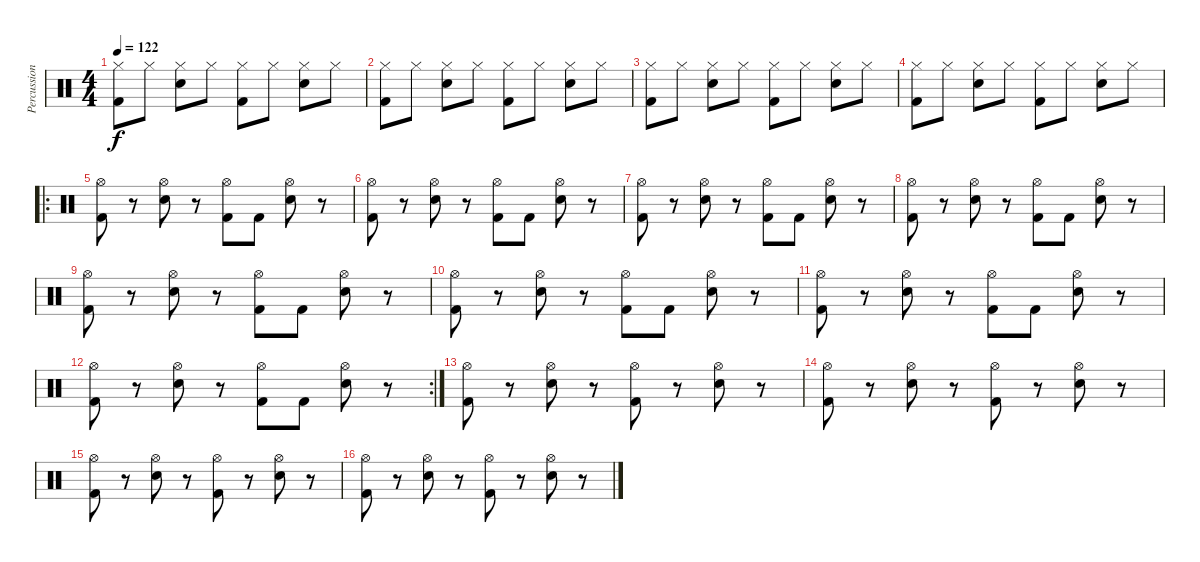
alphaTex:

\track ("Percussion" "Percussion") {instrument percussion}
\staff {score}
\articulation defaults
\ts (4 4)
\tempo 122
\clef neutral
\ks c
("Hi-Hat (closed)" "Kick (hit) 2").8{dy f} "Hi-Hat (closed)".8 ("Hi-Hat (closed)" "Electric Snare (hit)").8 "Hi-Hat (closed)".8 ("Hi-Hat (closed)" "Kick (hit) 2").8 "Hi-Hat (closed)".8 ("Hi-Hat (closed)" "Electric Snare (hit)").8 "Hi-Hat (closed)".8 |
("Hi-Hat (closed)" "Kick (hit) 2").8 "Hi-Hat (closed)".8 ("Hi-Hat (closed)" "Electric Snare (hit)").8 "Hi-Hat (closed)".8 ("Hi-Hat (closed)" "Kick (hit) 2").8 "Hi-Hat (closed)".8 ("Hi-Hat (closed)" "Electric Snare (hit)").8 "Hi-Hat (closed)".8 |
("Hi-Hat (closed)" "Kick (hit) 2").8 "Hi-Hat (closed)".8 ("Hi-Hat (closed)" "Electric Snare (hit)").8 "Hi-Hat (closed)".8 ("Hi-Hat (closed)" "Kick (hit) 2").8 "Hi-Hat (closed)".8 ("Hi-Hat (closed)" "Electric Snare (hit)").8 "Hi-Hat (closed)".8 |
("Hi-Hat (closed)" "Kick (hit) 2").8 "Hi-Hat (closed)".8 ("Hi-Hat (closed)" "Electric Snare (hit)").8 "Hi-Hat (closed)".8 ("Hi-Hat (closed)" "Kick (hit) 2").8 "Hi-Hat (closed)".8 ("Hi-Hat (closed)" "Electric Snare (hit)").8 "Hi-Hat (closed)".8 |
\ro
("Hi-Hat (open)" "Kick (hit) 2").8 r.8 ("Hi-Hat (open)" "Electric Snare (hit)").8 r.8 ("Hi-Hat (open)" "Kick (hit) 2").8 "Kick (hit) 2".8 ("Hi-Hat (open)" "Electric Snare (hit)").8 r.8 |
("Hi-Hat (open)" "Kick (hit) 2").8 r.8 ("Hi-Hat (open)" "Electric Snare (hit)").8 r.8 ("Hi-Hat (open)" "Kick (hit) 2").8 "Kick (hit) 2".8 ("Hi-Hat (open)" "Electric Snare (hit)").8 r.8 |
("Hi-Hat (open)" "Kick (hit) 2").8 r.8 ("Hi-Hat (open)" "Electric Snare (hit)").8 r.8 ("Hi-Hat (open)" "Kick (hit) 2").8 "Kick (hit) 2".8 ("Hi-Hat (open)" "Electric Snare (hit)").8 r.8 |
("Hi-Hat (open)" "Kick (hit) 2").8 r.8 ("Hi-Hat (open)" "Electric Snare (hit)").8 r.8 ("Hi-Hat (open)" "Kick (hit) 2").8 "Kick (hit) 2".8 ("Hi-Hat (open)" "Electric Snare (hit)").8 r.8 |
("Hi-Hat (open)" "Kick (hit) 2").8 r.8 ("Hi-Hat (open)" "Electric Snare (hit)").8 r.8 ("Hi-Hat (open)" "Kick (hit) 2").8 "Kick (hit) 2".8 ("Hi-Hat (open)" "Electric Snare (hit)").8 r.8 |
("Hi-Hat (open)" "Kick (hit) 2").8 r.8 ("Hi-Hat (open)" "Electric Snare (hit)").8 r.8 ("Hi-Hat (open)" "Kick (hit) 2").8 "Kick (hit) 2".8 ("Hi-Hat (open)" "Electric Snare (hit)").8 r.8 |
("Hi-Hat (open)" "Kick (hit) 2").8 r.8 ("Hi-Hat (open)" "Electric Snare (hit)").8 r.8 ("Hi-Hat (open)" "Kick (hit) 2").8 "Kick (hit) 2".8 ("Hi-Hat (open)" "Electric Snare (hit)").8 r.8 |
\rc 2
("Hi-Hat (open)" "Kick (hit) 2").8 r.8 ("Hi-Hat (open)" "Electric Snare (hit)").8 r.8 ("Hi-Hat (open)" "Kick (hit) 2").8 "Kick (hit) 2".8 ("Hi-Hat (open)" "Electric Snare (hit)").8 r.8 |
("Hi-Hat (open)" "Kick (hit) 2").8 r.8 ("Hi-Hat (open)" "Electric Snare (hit)").8 r.8 ("Hi-Hat (open)" "Kick (hit) 2").8 r.8 ("Hi-Hat (open)" "Electric Snare (hit)").8 r.8 |
("Hi-Hat (open)" "Kick (hit) 2").8 r.8 ("Hi-Hat (open)" "Electric Snare (hit)").8 r.8 ("Hi-Hat (open)" "Kick (hit) 2").8 r.8 ("Hi-Hat (open)" "Electric Snare (hit)").8 r.8 |
("Hi-Hat (open)" "Kick (hit) 2").8 r.8 ("Hi-Hat (open)" "Electric Snare (hit)").8 r.8 ("Hi-Hat (open)" "Kick (hit) 2").8 r.8 ("Hi-Hat (open)" "Electric Snare (hit)").8 r.8 |
("Hi-Hat (open)" "Kick (hit) 2").8 r.8 ("Hi-Hat (open)" "Electric Snare (hit)").8 r.8 ("Hi-Hat (open)" "Kick (hit) 2").8 r.8 ("Hi-Hat (open)" "Electric Snare (hit)").8 r.8
